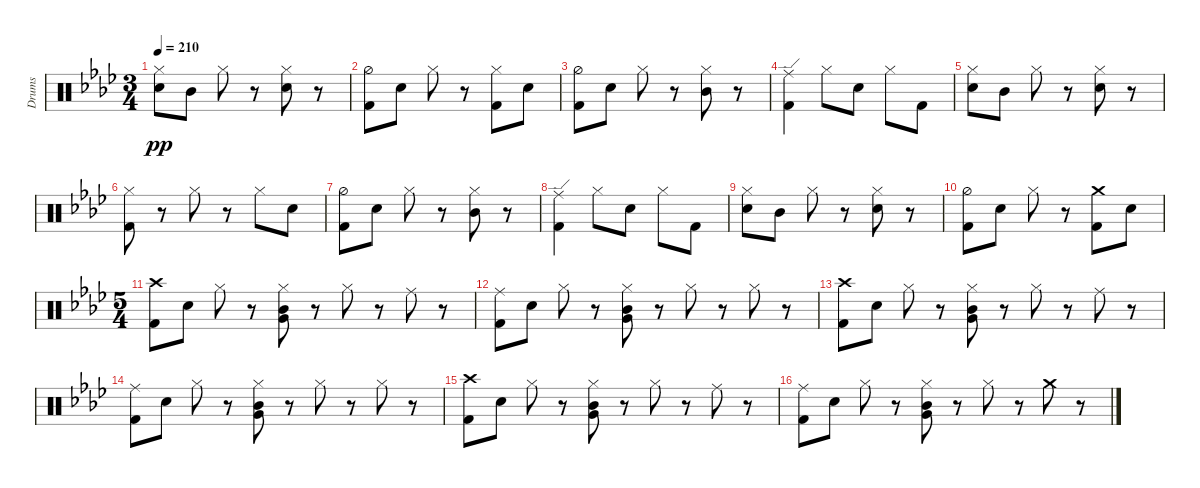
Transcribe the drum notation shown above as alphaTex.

\defaultSystemsLayout 4
\bracketExtendMode nobrackets
\otherSystemsTrackNameOrientation horizontal
\track ("Drumkit" "Drums") {instrument percussion}
\staff {score}
\articulation defaults
\ts (3 4)
\tempo 210
\clef neutral
\ks ab
("Hi-Hat (closed)"{acc forcenatural} "Snare (hit) 2"{acc forcenatural}).8{dy pp} "Mid Tom (hit)"{acc forcenatural}.8 "Hi-Hat (closed)"{acc forcenatural}.8 r.8 ("Hi-Hat (closed)"{acc forcenatural} "Snare (hit) 2"{acc forcenatural}).8 r.8 |
("Hi-Hat (half)"{acc forcenatural} "Kick (hit) 2"{acc forcenatural}).8 "Snare (hit) 2"{acc forcenatural}.8 "Hi-Hat (closed)"{acc forcenatural}.8 r.8 ("Hi-Hat (closed)"{acc forcenatural} "Kick (hit) 2"{acc forcenatural}).8 "Snare (hit) 2"{acc forcenatural}.8 |
("Hi-Hat (half)"{acc forcenatural} "Kick (hit) 2"{acc forcenatural}).8 "Snare (hit) 2"{acc forcenatural}.8 "Hi-Hat (closed)"{acc forcenatural}.8 r.8 ("Mid Tom (hit)"{acc forcenatural} "Hi-Hat (closed)"{acc forcenatural}).8 r.8 |
("Ride (edge)"{acc forcenatural} "Kick (hit) 2"{acc forcenatural}).4 "Hi-Hat (closed)"{acc forcenatural}.8 "Snare (hit) 2"{acc forcenatural}.8 "Hi-Hat (closed)"{acc forcenatural}.8 "Kick (hit) 2"{acc forcenatural}.8 |
("Hi-Hat (closed)"{acc forcenatural} "Snare (hit) 2"{acc forcenatural}).8 "Mid Tom (hit)"{acc forcenatural}.8 "Hi-Hat (closed)"{acc forcenatural}.8 r.8 ("Hi-Hat (closed)"{acc forcenatural} "Snare (hit) 2"{acc forcenatural}).8 r.8 |
("Kick (hit) 2"{acc forcenatural} "Hi-Hat (closed)"{acc forcenatural}).8 r.8 "Hi-Hat (closed)"{acc forcenatural}.8 r.8 "Hi-Hat (closed)"{acc forcenatural}.8 "Snare (hit) 2"{acc forcenatural}.8 |
("Hi-Hat (half)"{acc forcenatural} "Kick (hit) 2"{acc forcenatural}).8 "Snare (hit) 2"{acc forcenatural}.8 "Hi-Hat (closed)"{acc forcenatural}.8 r.8 ("Mid Tom (hit)"{acc forcenatural} "Hi-Hat (closed)"{acc forcenatural}).8 r.8 |
("Ride (edge)"{acc forcenatural} "Kick (hit) 2"{acc forcenatural}).4 "Hi-Hat (closed)"{acc forcenatural}.8 "Snare (hit) 2"{acc forcenatural}.8 "Hi-Hat (closed)"{acc forcenatural}.8 "Kick (hit) 2"{acc forcenatural}.8 |
("Hi-Hat (closed)"{acc forcenatural} "Snare (hit) 2"{acc forcenatural}).8 "Mid Tom (hit)"{acc forcenatural}.8 "Hi-Hat (closed)"{acc forcenatural}.8 r.8 ("Hi-Hat (closed)"{acc forcenatural} "Snare (hit) 2"{acc forcenatural}).8 r.8 |
("Hi-Hat (half)"{acc forcenatural} "Kick (hit) 2"{acc forcenatural}).8 "Snare (hit) 2"{acc forcenatural}.8 "Hi-Hat (closed)"{acc forcenatural}.8 r.8 ("Kick (hit) 2"{acc forcenatural} "Crash medium (hit)"{acc forcenatural}).8 "Snare (hit) 2"{acc forcenatural}.8 |
\ts (5 4)
("Kick (hit) 2"{acc forcenatural} "Crash high (hit)"{acc forcenatural}).8 "Snare (hit) 2"{acc forcenatural}.8 "Hi-Hat (closed)"{acc forcenatural}.8 r.8 ("Mid Tom (hit)"{acc forcenatural} "Hi-Hat (closed)"{acc forcenatural} "Very Low Tom (hit)"{acc forcenatural}).8 r.8 "Hi-Hat (closed)"{acc forcenatural}.8 r.8 "Ride (middle)"{acc forcenatural}.8 r.8 |
("Kick (hit) 2"{acc forcenatural} "Ride (middle)"{acc forcenatural}).8 "Snare (hit) 2"{acc forcenatural}.8 "Hi-Hat (closed)"{acc forcenatural}.8 r.8 ("Mid Tom (hit)"{acc forcenatural} "Hi-Hat (closed)"{acc forcenatural} "Very Low Tom (hit)"{acc forcenatural}).8 r.8 "Hi-Hat (closed)"{acc forcenatural}.8 r.8 "Hi-Hat (closed)"{acc forcenatural}.8 r.8 |
("Kick (hit) 2"{acc forcenatural} "Crash high (hit)"{acc forcenatural}).8 "Snare (hit) 2"{acc forcenatural}.8 "Hi-Hat (closed)"{acc forcenatural}.8 r.8 ("Mid Tom (hit)"{acc forcenatural} "Hi-Hat (closed)"{acc forcenatural} "Very Low Tom (hit)"{acc forcenatural}).8 r.8 "Hi-Hat (closed)"{acc forcenatural}.8 r.8 "Ride (middle)"{acc forcenatural}.8 r.8 |
("Kick (hit) 2"{acc forcenatural} "Ride (middle)"{acc forcenatural}).8 "Snare (hit) 2"{acc forcenatural}.8 "Hi-Hat (closed)"{acc forcenatural}.8 r.8 ("Mid Tom (hit)"{acc forcenatural} "Hi-Hat (closed)"{acc forcenatural} "Very Low Tom (hit)"{acc forcenatural}).8 r.8 "Hi-Hat (closed)"{acc forcenatural}.8 r.8 "Hi-Hat (closed)"{acc forcenatural}.8 r.8 |
("Kick (hit) 2"{acc forcenatural} "Crash high (hit)"{acc forcenatural}).8 "Snare (hit) 2"{acc forcenatural}.8 "Hi-Hat (closed)"{acc forcenatural}.8 r.8 ("Mid Tom (hit)"{acc forcenatural} "Hi-Hat (closed)"{acc forcenatural} "Very Low Tom (hit)"{acc forcenatural}).8 r.8 "Hi-Hat (closed)"{acc forcenatural}.8 r.8 "Ride (middle)"{acc forcenatural}.8 r.8 |
("Kick (hit) 2"{acc forcenatural} "Ride (middle)"{acc forcenatural}).8 "Snare (hit) 2"{acc forcenatural}.8 "Hi-Hat (closed)"{acc forcenatural}.8 r.8 ("Mid Tom (hit)"{acc forcenatural} "Hi-Hat (closed)"{acc forcenatural} "Very Low Tom (hit)"{acc forcenatural}).8 r.8 "Hi-Hat (closed)"{acc forcenatural}.8 r.8 "Crash medium (hit)"{acc forcenatural}.8 r.8
